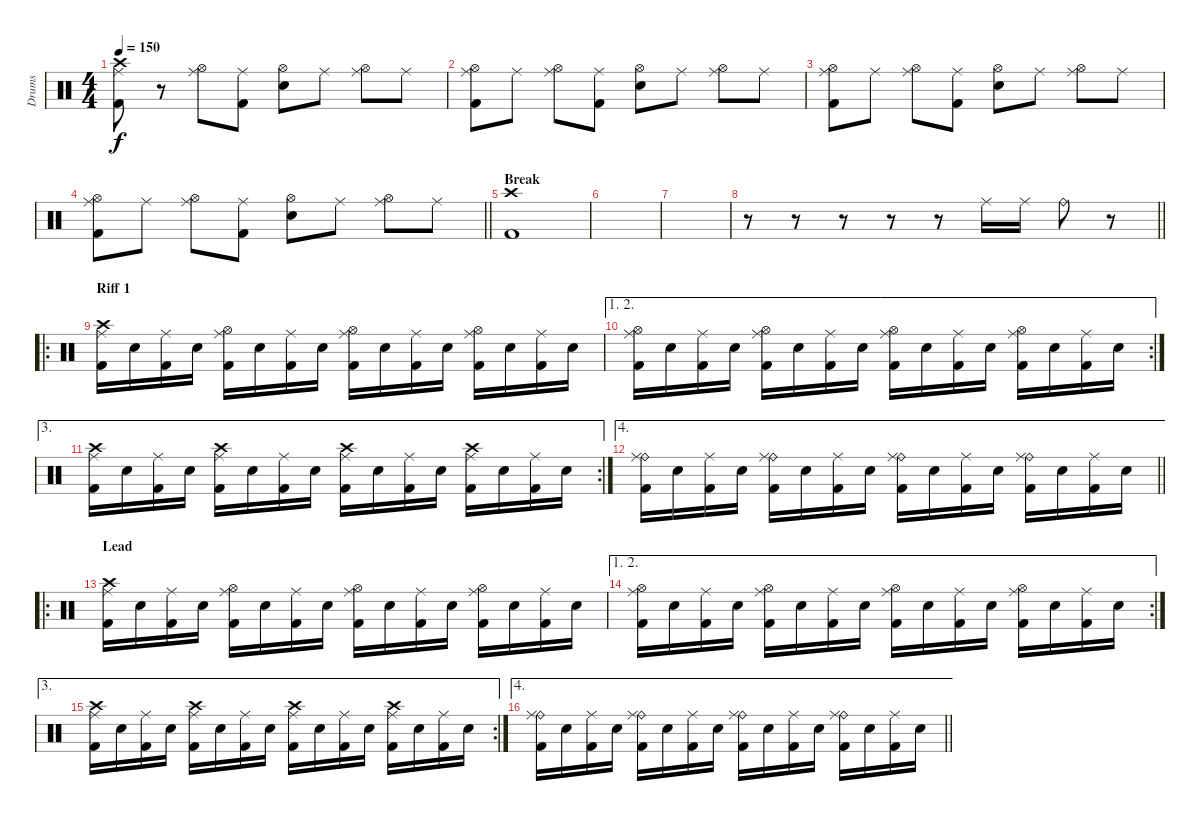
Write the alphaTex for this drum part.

\track ("Drums" "Drums") {instrument percussion}
\staff {score}
\articulation defaults
\ts (4 4)
\tempo 150
\clef neutral
\ks c
("Crash high (hit)" "Ride (middle)" "Kick (hit) 2").8{dy f} r.8 ("Hi-Hat (open)" "Ride (middle)").8 ("Ride (middle)" "Kick (hit) 2").8 ("Hi-Hat (open)" "Electric Snare (hit)").8 "Ride (middle)".8 ("Hi-Hat (open)" "Ride (middle)").8 "Ride (middle)".8 |
("Hi-Hat (open)" "Ride (middle)" "Kick (hit) 2").8 "Ride (middle)".8 ("Hi-Hat (open)" "Ride (middle)").8 ("Ride (middle)" "Kick (hit) 2").8 ("Hi-Hat (open)" "Electric Snare (hit)").8 "Ride (middle)".8 ("Hi-Hat (open)" "Ride (middle)").8 "Ride (middle)".8 |
("Hi-Hat (open)" "Ride (middle)" "Kick (hit) 2").8 "Ride (middle)".8 ("Hi-Hat (open)" "Ride (middle)").8 ("Ride (middle)" "Kick (hit) 2").8 ("Hi-Hat (open)" "Electric Snare (hit)").8 "Ride (middle)".8 ("Hi-Hat (open)" "Ride (middle)").8 "Ride (middle)".8 |
\barLineRight lightlight
("Hi-Hat (open)" "Ride (middle)" "Kick (hit) 2").8 "Ride (middle)".8 ("Hi-Hat (open)" "Ride (middle)").8 ("Ride (middle)" "Kick (hit) 2").8 ("Hi-Hat (open)" "Electric Snare (hit)").8 "Ride (middle)".8 ("Hi-Hat (open)" "Ride (middle)").8 "Ride (middle)".8 |
\section ("" "Break")
("Crash high (hit)" "Kick (hit) 2").1 |
|
|
\barLineRight lightlight
r.8 r.8 r.8 r.8 r.8 "Ride (middle)".16 "Ride (middle)".16 "Ride (bell)".8 r.8 |
\ro
\section ("" "Riff 1")
("Crash high (hit)" "Ride (middle)" "Kick (hit) 2").16 "Electric Snare (hit)".16 ("Ride (middle)" "Kick (hit) 2").16 "Electric Snare (hit)".16 ("Hi-Hat (open)" "Ride (middle)" "Kick (hit) 2").16 "Electric Snare (hit)".16 ("Ride (middle)" "Kick (hit) 2").16 "Electric Snare (hit)".16 ("Hi-Hat (open)" "Ride (middle)" "Kick (hit) 2").16 "Electric Snare (hit)".16 ("Ride (middle)" "Kick (hit) 2").16 "Electric Snare (hit)".16 ("Hi-Hat (open)" "Ride (middle)" "Kick (hit) 2").16 "Electric Snare (hit)".16 ("Ride (middle)" "Kick (hit) 2").16 "Electric Snare (hit)".16 |
\ae (1 2)
\rc 2
("Hi-Hat (open)" "Ride (middle)" "Kick (hit) 2").16 "Electric Snare (hit)".16 ("Ride (middle)" "Kick (hit) 2").16 "Electric Snare (hit)".16 ("Hi-Hat (open)" "Ride (middle)" "Kick (hit) 2").16 "Electric Snare (hit)".16 ("Ride (middle)" "Kick (hit) 2").16 "Electric Snare (hit)".16 ("Hi-Hat (open)" "Ride (middle)" "Kick (hit) 2").16 "Electric Snare (hit)".16 ("Ride (middle)" "Kick (hit) 2").16 "Electric Snare (hit)".16 ("Hi-Hat (open)" "Ride (middle)" "Kick (hit) 2").16 "Electric Snare (hit)".16 ("Ride (middle)" "Kick (hit) 2").16 "Electric Snare (hit)".16 |
\ae 3
\rc 2
("Crash high (hit)" "Ride (middle)" "Kick (hit) 2").16 "Electric Snare (hit)".16 ("Ride (middle)" "Kick (hit) 2").16 "Electric Snare (hit)".16 ("Crash high (hit)" "Ride (middle)" "Kick (hit) 2").16 "Electric Snare (hit)".16 ("Ride (middle)" "Kick (hit) 2").16 "Electric Snare (hit)".16 ("Crash high (hit)" "Ride (middle)" "Kick (hit) 2").16 "Electric Snare (hit)".16 ("Ride (middle)" "Kick (hit) 2").16 "Electric Snare (hit)".16 ("Crash high (hit)" "Ride (middle)" "Kick (hit) 2").16 "Electric Snare (hit)".16 ("Ride (middle)" "Kick (hit) 2").16 "Electric Snare (hit)".16 |
\ae 4
\barLineRight lightlight
("Ride (bell)" "Ride (middle)" "Kick (hit) 2").16 "Electric Snare (hit)".16 ("Ride (middle)" "Kick (hit) 2").16 "Electric Snare (hit)".16 ("Ride (bell)" "Ride (middle)" "Kick (hit) 2").16 "Electric Snare (hit)".16 ("Ride (middle)" "Kick (hit) 2").16 "Electric Snare (hit)".16 ("Ride (bell)" "Ride (middle)" "Kick (hit) 2").16 "Electric Snare (hit)".16 ("Ride (middle)" "Kick (hit) 2").16 "Electric Snare (hit)".16 ("Ride (bell)" "Ride (middle)" "Kick (hit) 2").16 "Electric Snare (hit)".16 ("Ride (middle)" "Kick (hit) 2").16 "Electric Snare (hit)".16 |
\ro
\section ("" "Lead")
("Crash high (hit)" "Ride (middle)" "Kick (hit) 2").16 "Electric Snare (hit)".16 ("Ride (middle)" "Kick (hit) 2").16 "Electric Snare (hit)".16 ("Hi-Hat (open)" "Ride (middle)" "Kick (hit) 2").16 "Electric Snare (hit)".16 ("Ride (middle)" "Kick (hit) 2").16 "Electric Snare (hit)".16 ("Hi-Hat (open)" "Ride (middle)" "Kick (hit) 2").16 "Electric Snare (hit)".16 ("Ride (middle)" "Kick (hit) 2").16 "Electric Snare (hit)".16 ("Hi-Hat (open)" "Ride (middle)" "Kick (hit) 2").16 "Electric Snare (hit)".16 ("Ride (middle)" "Kick (hit) 2").16 "Electric Snare (hit)".16 |
\ae (1 2)
\rc 2
("Hi-Hat (open)" "Ride (middle)" "Kick (hit) 2").16 "Electric Snare (hit)".16 ("Ride (middle)" "Kick (hit) 2").16 "Electric Snare (hit)".16 ("Hi-Hat (open)" "Ride (middle)" "Kick (hit) 2").16 "Electric Snare (hit)".16 ("Ride (middle)" "Kick (hit) 2").16 "Electric Snare (hit)".16 ("Hi-Hat (open)" "Ride (middle)" "Kick (hit) 2").16 "Electric Snare (hit)".16 ("Ride (middle)" "Kick (hit) 2").16 "Electric Snare (hit)".16 ("Hi-Hat (open)" "Ride (middle)" "Kick (hit) 2").16 "Electric Snare (hit)".16 ("Ride (middle)" "Kick (hit) 2").16 "Electric Snare (hit)".16 |
\ae 3
\rc 2
("Crash high (hit)" "Ride (middle)" "Kick (hit) 2").16 "Electric Snare (hit)".16 ("Ride (middle)" "Kick (hit) 2").16 "Electric Snare (hit)".16 ("Crash high (hit)" "Ride (middle)" "Kick (hit) 2").16 "Electric Snare (hit)".16 ("Ride (middle)" "Kick (hit) 2").16 "Electric Snare (hit)".16 ("Crash high (hit)" "Ride (middle)" "Kick (hit) 2").16 "Electric Snare (hit)".16 ("Ride (middle)" "Kick (hit) 2").16 "Electric Snare (hit)".16 ("Crash high (hit)" "Ride (middle)" "Kick (hit) 2").16 "Electric Snare (hit)".16 ("Ride (middle)" "Kick (hit) 2").16 "Electric Snare (hit)".16 |
\ae 4
\barLineRight lightlight
("Ride (bell)" "Ride (middle)" "Kick (hit) 2").16 "Electric Snare (hit)".16 ("Ride (middle)" "Kick (hit) 2").16 "Electric Snare (hit)".16 ("Ride (bell)" "Ride (middle)" "Kick (hit) 2").16 "Electric Snare (hit)".16 ("Ride (middle)" "Kick (hit) 2").16 "Electric Snare (hit)".16 ("Ride (bell)" "Ride (middle)" "Kick (hit) 2").16 "Electric Snare (hit)".16 ("Ride (middle)" "Kick (hit) 2").16 "Electric Snare (hit)".16 ("Ride (bell)" "Ride (middle)" "Kick (hit) 2").16 "Electric Snare (hit)".16 ("Ride (middle)" "Kick (hit) 2").16 "Electric Snare (hit)".16
